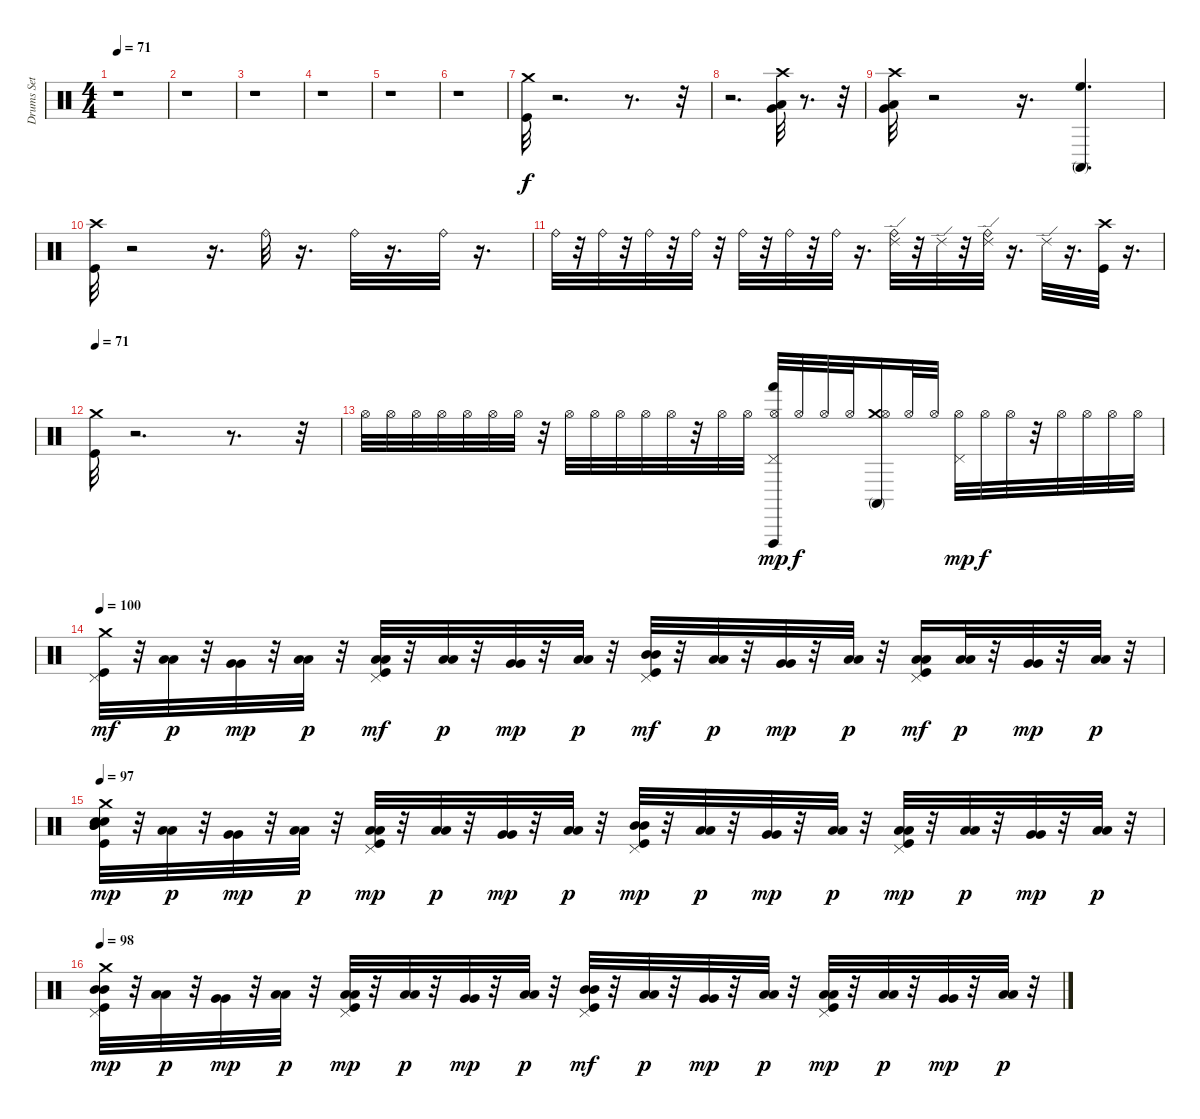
\track ("Drums Set" "Drums Set") {instrument percussion}
\staff {score}
\articulation defaults
\ts (4 4)
\tempo 71
\clef neutral
\ks c
r.1{dy f} |
r.1 |
r.1 |
r.1 |
r.1 |
r.1 |
("Crash medium (hit)" "Kick (hit)").32{volume 12 balance 8} r.2{d} r.8{d} r.32 |
r.2{d} ("Crash high (hit)" "Low Tom (hit)" "Very Low Tom (hit)").32 r.8{d} r.32 |
("Crash high (hit)" "Very Low Tom (hit)" "Low Floor Tom (hit)").32 r.2 r.16{d} ("Conga high (mute)" "High Floor Tom (hit)").4{d} |
("Kick (hit)" "Crash high (hit)").32 r.2 r.16{d} "Ride (bell)".32 r.16{d} "Ride (bell)".32 r.16{d} "Ride (bell)".32 r.16{d} |
"Ride (bell)".32 r.32 "Ride (bell)".32 r.32 "Ride (bell)".32 r.32 "Ride (bell)".32 r.32 "Ride (bell)".32 r.32 "Ride (bell)".32 r.32 "Ride (bell)".32 r.16{d} ("Ride (bell)" "Ride (edge) 2").32 r.32 "Ride (edge) 2".32 r.32 ("Ride (bell)" "Ride (edge) 2").32 r.16{d} "Ride (edge) 2".32 r.16{d} ("Kick (hit)" "Crash high (hit)").32 r.16{d} |
\tempo 71
("Kick (hit)" "Crash medium (hit)").32 r.2{d} r.8{d} r.32 |
"Hi-Hat (open)".32 "Hi-Hat (open)".32 "Hi-Hat (open)".32 "Hi-Hat (open)".32 "Hi-Hat (open)".32 "Hi-Hat (open)".32 "Hi-Hat (open)".32 r.32 "Hi-Hat (open)".32 "Hi-Hat (open)".32 "Hi-Hat (open)".32 "Hi-Hat (open)".32 "Hi-Hat (open)".32 r.32 "Hi-Hat (open)".32 "Hi-Hat (open)".32 ("Hand (hit)" "Pedal Hi-Hat (hit)" "Hi-Hat (open)" "Vibraslap (hit)").32{dy mp} "Hi-Hat (open)".32{dy f} "Hi-Hat (open)".32 "Hi-Hat (open)".32 ("Crash medium (hit)" "Conga high (mute)" "Hi-Hat (open)").16 "Hi-Hat (open)".32 "Hi-Hat (open)".32 ("Pedal Hi-Hat (hit)" "Hi-Hat (open)").32{dy mp} "Hi-Hat (open)".32{dy f} "Hi-Hat (open)".32 r.32 "Hi-Hat (open)".32 "Hi-Hat (open)".32 "Hi-Hat (open)".32 "Hi-Hat (open)".32 |
\tempo 100
("Crash medium (hit)" "Pedal Hi-Hat (hit)" "Kick (hit)").32{dy mf} r.32 ("Low Floor Tom (hit)" "Low Floor Tom (hit)").32{dy p} r.32 ("Very Low Tom (hit)" "Very Low Tom (hit)").32{dy mp} r.32 ("Low Floor Tom (hit)" "Low Floor Tom (hit)").32{dy p} r.32 ("Low Tom (hit)" "Low Tom (hit)" "Pedal Hi-Hat (hit)" "Kick (hit)").32{dy mf} r.32 ("Low Floor Tom (hit)" "Low Floor Tom (hit)").32{dy p} r.32 ("Very Low Tom (hit)" "Very Low Tom (hit)").32{dy mp} r.32 ("Low Floor Tom (hit)" "Low Floor Tom (hit)").32{dy p} r.32 ("Mid Tom (hit)" "Mid Tom (hit)" "Pedal Hi-Hat (hit)" "Kick (hit)").32{dy mf} r.32 ("Low Floor Tom (hit)" "Low Floor Tom (hit)").32{dy p} r.32 ("Very Low Tom (hit)" "Very Low Tom (hit)").32{dy mp} r.32 ("Low Floor Tom (hit)" "Low Floor Tom (hit)").32{dy p} r.32 ("Low Tom (hit)" "Low Tom (hit)" "Pedal Hi-Hat (hit)" "Kick (hit)").16{dy mf} ("Low Floor Tom (hit)" "Low Floor Tom (hit)").32{dy p} r.32 ("Very Low Tom (hit)" "Very Low Tom (hit)").32{dy mp} r.32 ("Low Floor Tom (hit)" "Low Floor Tom (hit)").32{dy p} r.32 |
\tempo 97
("Snare (hit)" "Mid Tom (hit)" "Snare (hit)" "Crash medium (hit)" "Kick (hit)" "Mid Tom (hit)").32{dy mp} r.32 ("Low Floor Tom (hit)" "Low Floor Tom (hit)").32{dy p} r.32 ("Very Low Tom (hit)" "Very Low Tom (hit)").32{dy mp} r.32 ("Low Floor Tom (hit)" "Low Floor Tom (hit)").32{dy p} r.32 ("Low Tom (hit)" "Kick (hit)" "Pedal Hi-Hat (hit)" "Low Tom (hit)").32{dy mp} r.32 ("Low Floor Tom (hit)" "Low Floor Tom (hit)").32{dy p} r.32 ("Very Low Tom (hit)" "Very Low Tom (hit)").32{dy mp} r.32 ("Low Floor Tom (hit)" "Low Floor Tom (hit)").32{dy p} r.32 ("Mid Tom (hit)" "Pedal Hi-Hat (hit)" "Kick (hit)" "Mid Tom (hit)").32{dy mp} r.32 ("Low Floor Tom (hit)" "Low Floor Tom (hit)").32{dy p} r.32 ("Very Low Tom (hit)" "Very Low Tom (hit)").32{dy mp} r.32 ("Low Floor Tom (hit)" "Low Floor Tom (hit)").32{dy p} r.32 ("Low Tom (hit)" "Kick (hit)" "Pedal Hi-Hat (hit)" "Low Tom (hit)").32{dy mp} r.32 ("Low Floor Tom (hit)" "Low Floor Tom (hit)").32{dy p} r.32 ("Very Low Tom (hit)" "Very Low Tom (hit)").32{dy mp} r.32 ("Low Floor Tom (hit)" "Low Floor Tom (hit)").32{dy p} r.32 |
\tempo 98
("Mid Tom (hit)" "Kick (hit)" "Crash medium (hit)" "Mid Tom (hit)" "Pedal Hi-Hat (hit)").32{dy mp} r.32 ("Low Floor Tom (hit)" "Low Floor Tom (hit)").32{dy p} r.32 ("Very Low Tom (hit)" "Very Low Tom (hit)").32{dy mp} r.32 ("Low Floor Tom (hit)" "Low Floor Tom (hit)").32{dy p} r.32 ("Low Tom (hit)" "Kick (hit)" "Low Tom (hit)" "Pedal Hi-Hat (hit)").32{dy mp} r.32 ("Low Floor Tom (hit)" "Low Floor Tom (hit)").32{dy p} r.32 ("Very Low Tom (hit)" "Very Low Tom (hit)").32{dy mp} r.32 ("Low Floor Tom (hit)" "Low Floor Tom (hit)").32{dy p} r.32 ("Mid Tom (hit)" "Mid Tom (hit)" "Pedal Hi-Hat (hit)" "Kick (hit)").32{dy mf} r.32 ("Low Floor Tom (hit)" "Low Floor Tom (hit)").32{dy p} r.32 ("Very Low Tom (hit)" "Very Low Tom (hit)").32{dy mp} r.32 ("Low Floor Tom (hit)" "Low Floor Tom (hit)").32{dy p} r.32 ("Low Tom (hit)" "Kick (hit)" "Low Tom (hit)" "Pedal Hi-Hat (hit)").32{dy mp} r.32 ("Low Floor Tom (hit)" "Low Floor Tom (hit)").32{dy p} r.32 ("Very Low Tom (hit)" "Very Low Tom (hit)").32{dy mp} r.32 ("Low Floor Tom (hit)" "Low Floor Tom (hit)").32{dy p} r.32
